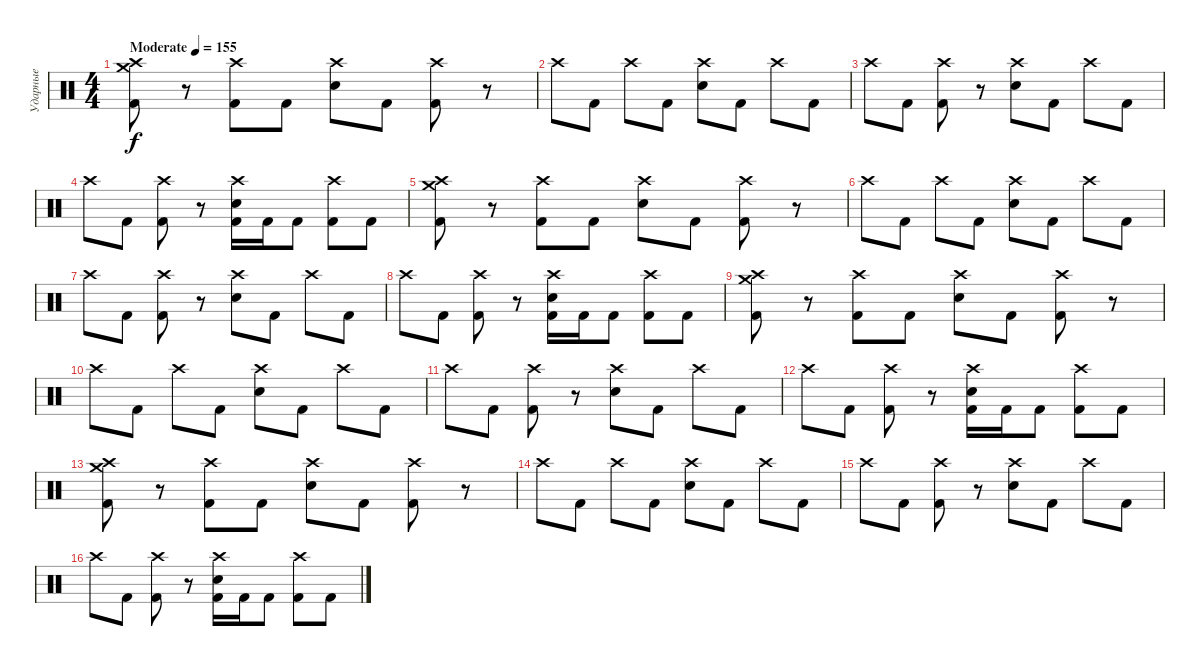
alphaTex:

\track ("Ударные" "Ударные") {instrument percussion}
\staff {score}
\articulation defaults
\ts (4 4)
\tempo (155 "Moderate")
\clef neutral
\ks c
("Crash high (hit)" "Crash medium (hit)" "Kick (hit) 2").8{dy f} r.8 ("Crash high (hit)" "Kick (hit) 2").8 "Kick (hit) 2".8 ("Crash high (hit)" "Snare (hit) 2").8 "Kick (hit) 2".8 ("Crash high (hit)" "Kick (hit) 2").8 r.8 |
"Crash high (hit)".8 "Kick (hit) 2".8 "Crash high (hit)".8 "Kick (hit) 2".8 ("Crash high (hit)" "Snare (hit) 2").8 "Kick (hit) 2".8 "Crash high (hit)".8 "Kick (hit) 2".8 |
"Crash high (hit)".8 "Kick (hit) 2".8 ("Crash high (hit)" "Kick (hit) 2").8 r.8 ("Crash high (hit)" "Snare (hit) 2").8 "Kick (hit) 2".8 "Crash high (hit)".8 "Kick (hit) 2".8 |
"Crash high (hit)".8 "Kick (hit) 2".8 ("Crash high (hit)" "Kick (hit) 2").8 r.8 ("Crash high (hit)" "Snare (hit) 2" "Kick (hit) 2").16 "Kick (hit) 2".16 "Kick (hit) 2".8 ("Crash high (hit)" "Kick (hit) 2").8 "Kick (hit) 2".8 |
("Crash high (hit)" "Crash medium (hit)" "Kick (hit) 2").8 r.8 ("Crash high (hit)" "Kick (hit) 2").8 "Kick (hit) 2".8 ("Crash high (hit)" "Snare (hit) 2").8 "Kick (hit) 2".8 ("Crash high (hit)" "Kick (hit) 2").8 r.8 |
"Crash high (hit)".8 "Kick (hit) 2".8 "Crash high (hit)".8 "Kick (hit) 2".8 ("Crash high (hit)" "Snare (hit) 2").8 "Kick (hit) 2".8 "Crash high (hit)".8 "Kick (hit) 2".8 |
"Crash high (hit)".8 "Kick (hit) 2".8 ("Crash high (hit)" "Kick (hit) 2").8 r.8 ("Crash high (hit)" "Snare (hit) 2").8 "Kick (hit) 2".8 "Crash high (hit)".8 "Kick (hit) 2".8 |
"Crash high (hit)".8 "Kick (hit) 2".8 ("Crash high (hit)" "Kick (hit) 2").8 r.8 ("Crash high (hit)" "Snare (hit) 2" "Kick (hit) 2").16 "Kick (hit) 2".16 "Kick (hit) 2".8 ("Crash high (hit)" "Kick (hit) 2").8 "Kick (hit) 2".8 |
("Crash high (hit)" "Crash medium (hit)" "Kick (hit) 2").8 r.8 ("Crash high (hit)" "Kick (hit) 2").8 "Kick (hit) 2".8 ("Crash high (hit)" "Snare (hit) 2").8 "Kick (hit) 2".8 ("Crash high (hit)" "Kick (hit) 2").8 r.8 |
"Crash high (hit)".8 "Kick (hit) 2".8 "Crash high (hit)".8 "Kick (hit) 2".8 ("Crash high (hit)" "Snare (hit) 2").8 "Kick (hit) 2".8 "Crash high (hit)".8 "Kick (hit) 2".8 |
"Crash high (hit)".8 "Kick (hit) 2".8 ("Crash high (hit)" "Kick (hit) 2").8 r.8 ("Crash high (hit)" "Snare (hit) 2").8 "Kick (hit) 2".8 "Crash high (hit)".8 "Kick (hit) 2".8 |
"Crash high (hit)".8 "Kick (hit) 2".8 ("Crash high (hit)" "Kick (hit) 2").8 r.8 ("Crash high (hit)" "Snare (hit) 2" "Kick (hit) 2").16 "Kick (hit) 2".16 "Kick (hit) 2".8 ("Crash high (hit)" "Kick (hit) 2").8 "Kick (hit) 2".8 |
("Crash high (hit)" "Crash medium (hit)" "Kick (hit) 2").8 r.8 ("Crash high (hit)" "Kick (hit) 2").8 "Kick (hit) 2".8 ("Crash high (hit)" "Snare (hit) 2").8 "Kick (hit) 2".8 ("Crash high (hit)" "Kick (hit) 2").8 r.8 |
"Crash high (hit)".8 "Kick (hit) 2".8 "Crash high (hit)".8 "Kick (hit) 2".8 ("Crash high (hit)" "Snare (hit) 2").8 "Kick (hit) 2".8 "Crash high (hit)".8 "Kick (hit) 2".8 |
"Crash high (hit)".8 "Kick (hit) 2".8 ("Crash high (hit)" "Kick (hit) 2").8 r.8 ("Crash high (hit)" "Snare (hit) 2").8 "Kick (hit) 2".8 "Crash high (hit)".8 "Kick (hit) 2".8 |
"Crash high (hit)".8 "Kick (hit) 2".8 ("Crash high (hit)" "Kick (hit) 2").8 r.8 ("Crash high (hit)" "Snare (hit) 2" "Kick (hit) 2").16 "Kick (hit) 2".16 "Kick (hit) 2".8 ("Crash high (hit)" "Kick (hit) 2").8 "Kick (hit) 2".8
